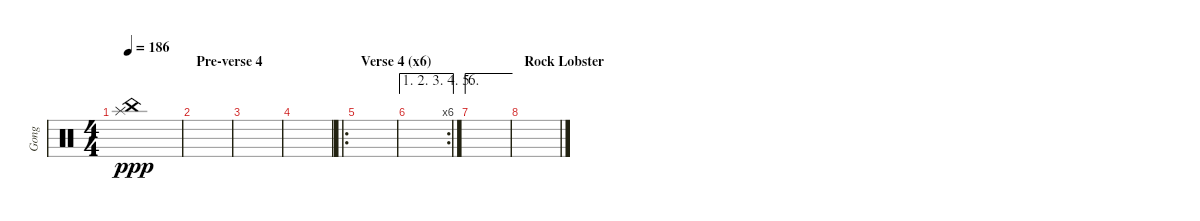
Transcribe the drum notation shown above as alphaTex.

\track ("Gong" "Gong") {instrument percussion}
\staff {score}
\articulation defaults
\ts (4 4)
\tempo 186
\clef neutral
\ks c
("China (hit)" "Splash (hit)").1{dy ppp} |
\section ("" "Pre-verse 4")
|
|
|
\ro
\section ("" "Verse 4 (x6)")
|
\ae (1 2 3 4 5)
\rc 6
|
\ae 6
|
\section ("" "Rock Lobster")
